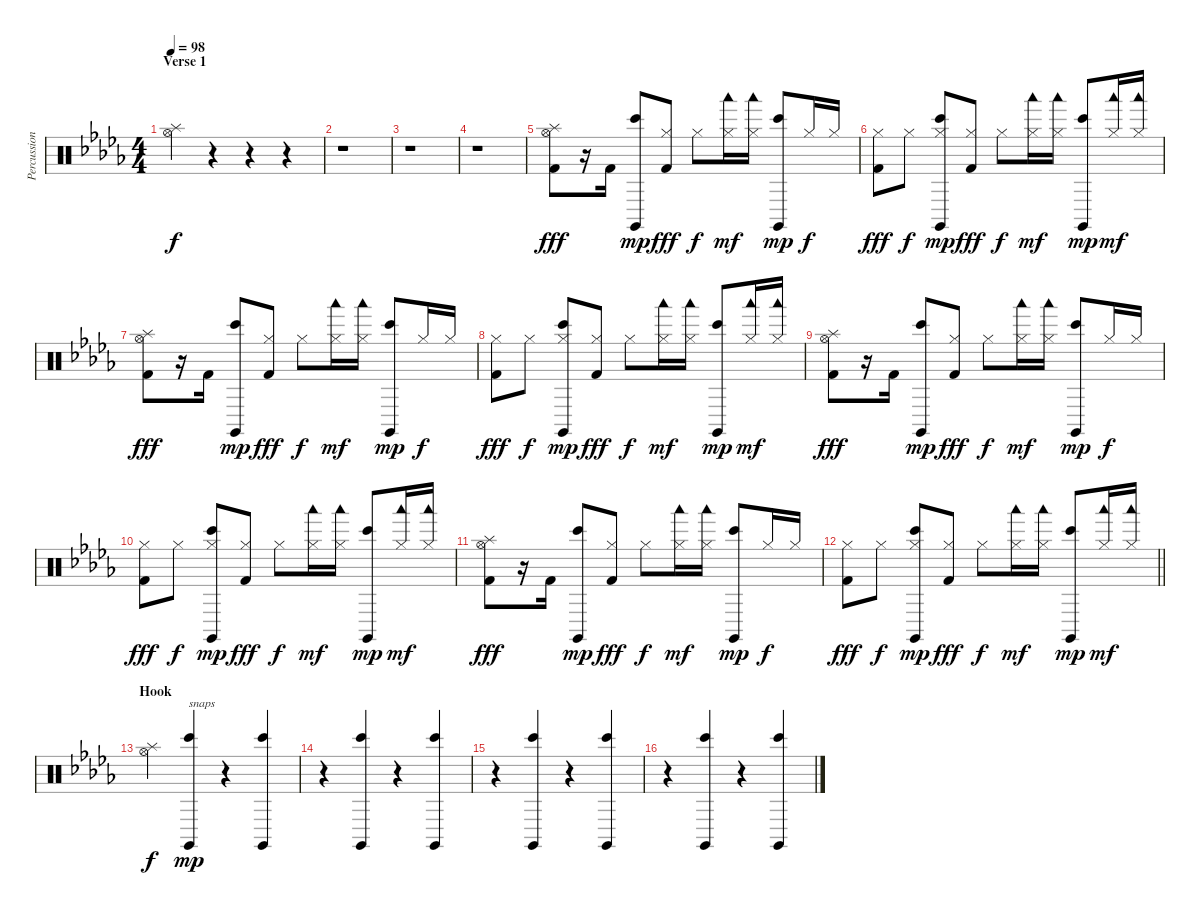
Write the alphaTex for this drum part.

\track ("Percussion" "Percussion") {instrument percussion}
\staff {score}
\articulation defaults
\ts (4 4)
\section ("" "Verse 1")
\tempo 98
\clef neutral
\ks db
("Splash (hit)" "Hi-Hat (open)").4{dy f} r.4 r.4 r.4 |
r.1 |
r.1 |
r.1 |
("Splash (hit)" "Hi-Hat (open)" "Kick (hit) 2").8{dy fff} r.16 "Kick (hit) 2".16 ("Claves (hit)" "Bongo High (hit)").8{dy mp} ("Hi-Hat (closed)" "Kick (hit) 2").8{dy fff} "Hi-Hat (closed)".8{dy f} ("Hi-Hat (closed)" "Woodblock low (hit)").16{dy mf} ("Hi-Hat (closed)" "Woodblock low (hit)").16 ("Claves (hit)" "Bongo High (hit)").8{dy mp} "Hi-Hat (closed)".16{dy f} "Hi-Hat (closed)".16 |
("Hi-Hat (closed)" "Kick (hit) 2").8{dy fff} "Hi-Hat (closed)".8{dy f} ("Hi-Hat (closed)" "Claves (hit)" "Bongo High (hit)").8{dy mp} ("Hi-Hat (closed)" "Kick (hit) 2").8{dy fff} "Hi-Hat (closed)".8{dy f} ("Hi-Hat (closed)" "Woodblock low (hit)").16{dy mf} ("Hi-Hat (closed)" "Woodblock low (hit)").16 ("Claves (hit)" "Bongo High (hit)").8{dy mp} ("Hi-Hat (closed)" "Woodblock low (hit)").16{dy mf} ("Hi-Hat (closed)" "Woodblock low (hit)").16 |
("Splash (hit)" "Hi-Hat (open)" "Kick (hit) 2").8{dy fff} r.16 "Kick (hit) 2".16 ("Claves (hit)" "Bongo High (hit)").8{dy mp} ("Hi-Hat (closed)" "Kick (hit) 2").8{dy fff} "Hi-Hat (closed)".8{dy f} ("Hi-Hat (closed)" "Woodblock low (hit)").16{dy mf} ("Hi-Hat (closed)" "Woodblock low (hit)").16 ("Claves (hit)" "Bongo High (hit)").8{dy mp} "Hi-Hat (closed)".16{dy f} "Hi-Hat (closed)".16 |
("Hi-Hat (closed)" "Kick (hit) 2").8{dy fff} "Hi-Hat (closed)".8{dy f} ("Hi-Hat (closed)" "Claves (hit)" "Bongo High (hit)").8{dy mp} ("Hi-Hat (closed)" "Kick (hit) 2").8{dy fff} "Hi-Hat (closed)".8{dy f} ("Hi-Hat (closed)" "Woodblock low (hit)").16{dy mf} ("Hi-Hat (closed)" "Woodblock low (hit)").16 ("Claves (hit)" "Bongo High (hit)").8{dy mp} ("Hi-Hat (closed)" "Woodblock low (hit)").16{dy mf} ("Hi-Hat (closed)" "Woodblock low (hit)").16 |
("Splash (hit)" "Hi-Hat (open)" "Kick (hit) 2").8{dy fff} r.16 "Kick (hit) 2".16 ("Claves (hit)" "Bongo High (hit)").8{dy mp} ("Hi-Hat (closed)" "Kick (hit) 2").8{dy fff} "Hi-Hat (closed)".8{dy f} ("Hi-Hat (closed)" "Woodblock low (hit)").16{dy mf} ("Hi-Hat (closed)" "Woodblock low (hit)").16 ("Claves (hit)" "Bongo High (hit)").8{dy mp} "Hi-Hat (closed)".16{dy f} "Hi-Hat (closed)".16 |
("Hi-Hat (closed)" "Kick (hit) 2").8{dy fff} "Hi-Hat (closed)".8{dy f} ("Hi-Hat (closed)" "Claves (hit)" "Bongo High (hit)").8{dy mp} ("Hi-Hat (closed)" "Kick (hit) 2").8{dy fff} "Hi-Hat (closed)".8{dy f} ("Hi-Hat (closed)" "Woodblock low (hit)").16{dy mf} ("Hi-Hat (closed)" "Woodblock low (hit)").16 ("Claves (hit)" "Bongo High (hit)").8{dy mp} ("Hi-Hat (closed)" "Woodblock low (hit)").16{dy mf} ("Hi-Hat (closed)" "Woodblock low (hit)").16 |
("Splash (hit)" "Hi-Hat (open)" "Kick (hit) 2").8{dy fff} r.16 "Kick (hit) 2".16 ("Claves (hit)" "Bongo High (hit)").8{dy mp} ("Hi-Hat (closed)" "Kick (hit) 2").8{dy fff} "Hi-Hat (closed)".8{dy f} ("Hi-Hat (closed)" "Woodblock low (hit)").16{dy mf} ("Hi-Hat (closed)" "Woodblock low (hit)").16 ("Claves (hit)" "Bongo High (hit)").8{dy mp} "Hi-Hat (closed)".16{dy f} "Hi-Hat (closed)".16 |
\barLineRight lightlight
("Hi-Hat (closed)" "Kick (hit) 2").8{dy fff} "Hi-Hat (closed)".8{dy f} ("Hi-Hat (closed)" "Claves (hit)" "Bongo High (hit)").8{dy mp} ("Hi-Hat (closed)" "Kick (hit) 2").8{dy fff} "Hi-Hat (closed)".8{dy f} ("Hi-Hat (closed)" "Woodblock low (hit)").16{dy mf} ("Hi-Hat (closed)" "Woodblock low (hit)").16 ("Claves (hit)" "Bongo High (hit)").8{dy mp} ("Hi-Hat (closed)" "Woodblock low (hit)").16{dy mf} ("Hi-Hat (closed)" "Woodblock low (hit)").16 |
\section ("" "Hook")
("Splash (hit)" "Hi-Hat (open)").4{dy f} ("Claves (hit)" "Bongo High (hit)").4{txt "snaps" dy mp} r.4 ("Claves (hit)" "Bongo High (hit)").4 |
r.4 ("Claves (hit)" "Bongo High (hit)").4 r.4 ("Claves (hit)" "Bongo High (hit)").4 |
r.4 ("Claves (hit)" "Bongo High (hit)").4 r.4 ("Claves (hit)" "Bongo High (hit)").4 |
r.4 ("Claves (hit)" "Bongo High (hit)").4 r.4 ("Claves (hit)" "Bongo High (hit)").4
